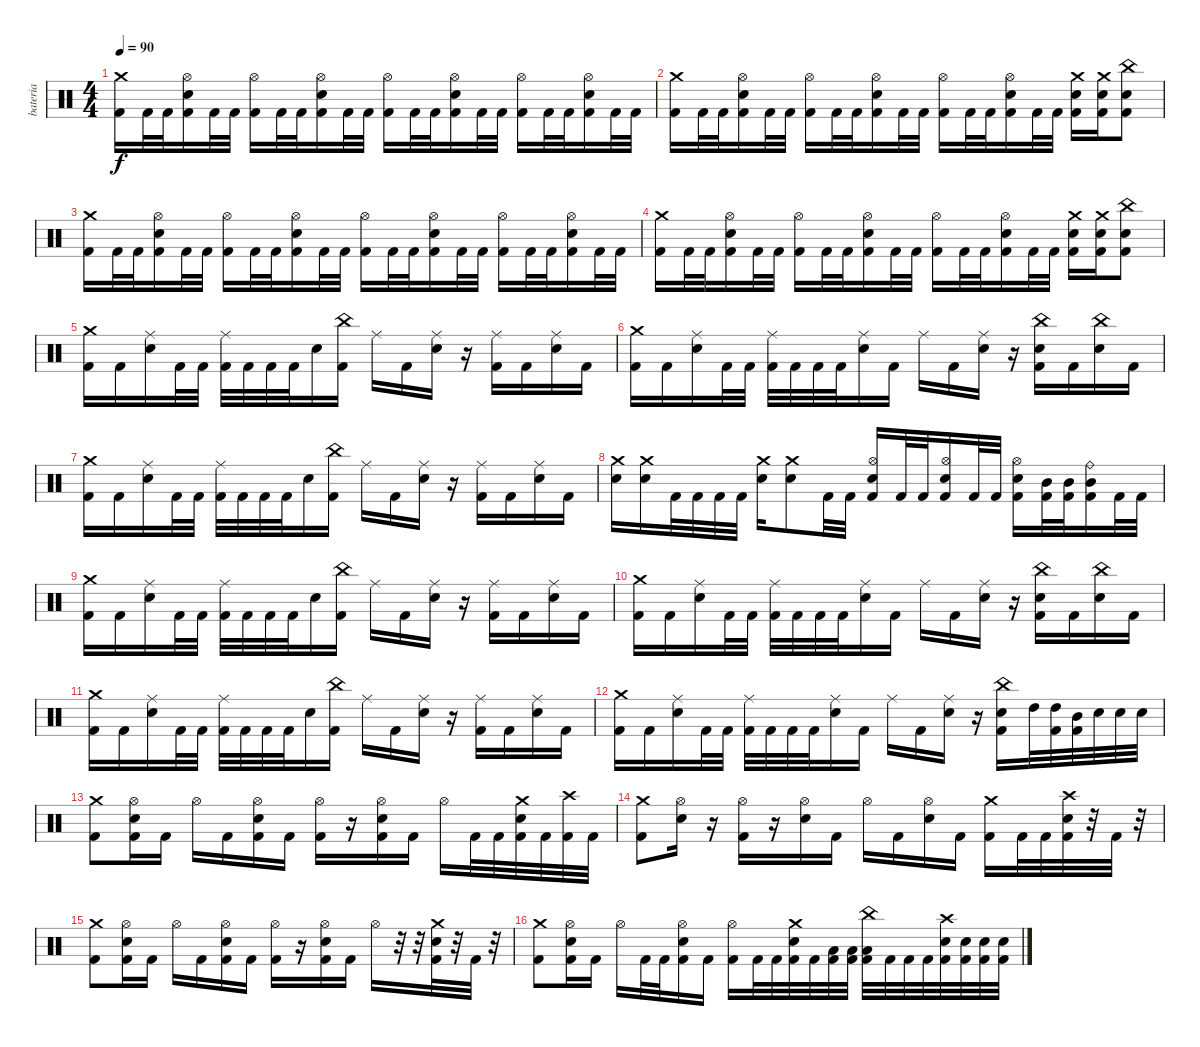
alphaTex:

\track ("bateria" "bateria") {instrument percussion}
\staff {score}
\articulation defaults
\ts (4 4)
\tempo 90
\clef neutral
\ks c
("Crash medium (hit)" "Kick (hit) 2").16{dy f} "Kick (hit) 2".32 "Kick (hit) 2".32 ("Hi-Hat (open)" "Snare (hit) 2" "Kick (hit) 2").16 "Kick (hit) 2".32 "Kick (hit) 2".32 ("Hi-Hat (open)" "Kick (hit) 2").16 "Kick (hit) 2".32 "Kick (hit) 2".32 ("Hi-Hat (open)" "Snare (hit) 2" "Kick (hit) 2").16 "Kick (hit) 2".32 "Kick (hit) 2".32 ("Hi-Hat (open)" "Kick (hit) 2").16 "Kick (hit) 2".32 "Kick (hit) 2".32 ("Hi-Hat (open)" "Snare (hit) 2" "Kick (hit) 2").16 "Kick (hit) 2".32 "Kick (hit) 2".32 ("Hi-Hat (open)" "Kick (hit) 2").16 "Kick (hit) 2".32 "Kick (hit) 2".32 ("Hi-Hat (open)" "Snare (hit) 2" "Kick (hit) 2").16 "Kick (hit) 2".32 "Kick (hit) 2".32 |
("Crash medium (hit)" "Kick (hit) 2").16 "Kick (hit) 2".32 "Kick (hit) 2".32 ("Hi-Hat (open)" "Snare (hit) 2" "Kick (hit) 2").16 "Kick (hit) 2".32 "Kick (hit) 2".32 ("Hi-Hat (open)" "Kick (hit) 2").16 "Kick (hit) 2".32 "Kick (hit) 2".32 ("Hi-Hat (open)" "Snare (hit) 2" "Kick (hit) 2").16 "Kick (hit) 2".32 "Kick (hit) 2".32 ("Hi-Hat (open)" "Kick (hit) 2").16 "Kick (hit) 2".32 "Kick (hit) 2".32 ("Hi-Hat (open)" "Snare (hit) 2" "Kick (hit) 2").16 "Kick (hit) 2".32 "Kick (hit) 2".32 ("Crash medium (hit)" "Snare (hit) 2" "Kick (hit) 2").16 ("Crash medium (hit)" "Snare (hit) 2" "Kick (hit) 2").16 ("China (hit)" "Snare (hit) 2" "Kick (hit) 2").8 |
("Crash medium (hit)" "Kick (hit) 2").16 "Kick (hit) 2".32 "Kick (hit) 2".32 ("Hi-Hat (open)" "Snare (hit) 2" "Kick (hit) 2").16 "Kick (hit) 2".32 "Kick (hit) 2".32 ("Hi-Hat (open)" "Kick (hit) 2").16 "Kick (hit) 2".32 "Kick (hit) 2".32 ("Hi-Hat (open)" "Snare (hit) 2" "Kick (hit) 2").16 "Kick (hit) 2".32 "Kick (hit) 2".32 ("Hi-Hat (open)" "Kick (hit) 2").16 "Kick (hit) 2".32 "Kick (hit) 2".32 ("Hi-Hat (open)" "Snare (hit) 2" "Kick (hit) 2").16 "Kick (hit) 2".32 "Kick (hit) 2".32 ("Hi-Hat (open)" "Kick (hit) 2").16 "Kick (hit) 2".32 "Kick (hit) 2".32 ("Hi-Hat (open)" "Snare (hit) 2" "Kick (hit) 2").16 "Kick (hit) 2".32 "Kick (hit) 2".32 |
("Crash medium (hit)" "Kick (hit) 2").16 "Kick (hit) 2".32 "Kick (hit) 2".32 ("Hi-Hat (open)" "Snare (hit) 2" "Kick (hit) 2").16 "Kick (hit) 2".32 "Kick (hit) 2".32 ("Hi-Hat (open)" "Kick (hit) 2").16 "Kick (hit) 2".32 "Kick (hit) 2".32 ("Hi-Hat (open)" "Snare (hit) 2" "Kick (hit) 2").16 "Kick (hit) 2".32 "Kick (hit) 2".32 ("Hi-Hat (open)" "Kick (hit) 2").16 "Kick (hit) 2".32 "Kick (hit) 2".32 ("Hi-Hat (open)" "Snare (hit) 2" "Kick (hit) 2").16 "Kick (hit) 2".32 "Kick (hit) 2".32 ("Crash medium (hit)" "Snare (hit) 2" "Kick (hit) 2").16 ("Crash medium (hit)" "Snare (hit) 2" "Kick (hit) 2").16 ("China (hit)" "Snare (hit) 2" "Kick (hit) 2").8 |
("Crash medium (hit)" "Kick (hit) 2").16 "Kick (hit) 2".16 ("Ride (middle)" "Snare (hit) 2").16 "Kick (hit) 2".32 "Kick (hit) 2".32 ("Ride (middle)" "Kick (hit) 2").32 "Kick (hit) 2".32 "Kick (hit) 2".32 "Kick (hit) 2".32 "Snare (hit) 2".16 ("China (hit)" "Kick (hit) 2").16 "Ride (middle)".16 "Kick (hit) 2".16 ("Ride (middle)" "Snare (hit) 2").16 r.16 ("Ride (middle)" "Kick (hit) 2").16 "Kick (hit) 2".16 ("Ride (middle)" "Snare (hit) 2").16 "Kick (hit) 2".16 |
("Crash medium (hit)" "Kick (hit) 2").16 "Kick (hit) 2".16 ("Ride (middle)" "Snare (hit) 2").16 "Kick (hit) 2".32 "Kick (hit) 2".32 ("Ride (middle)" "Kick (hit) 2").32 "Kick (hit) 2".32 "Kick (hit) 2".32 "Kick (hit) 2".32 ("Ride (middle)" "Snare (hit) 2").16 "Kick (hit) 2".16 "Ride (middle)".16 "Kick (hit) 2".16 ("Ride (middle)" "Snare (hit) 2").16 r.16 ("China (hit)" "Snare (hit) 2" "Kick (hit) 2").16 "Kick (hit) 2".16 ("China (hit)" "Snare (hit) 2").16 "Kick (hit) 2".16 |
("Crash medium (hit)" "Kick (hit) 2").16 "Kick (hit) 2".16 ("Ride (middle)" "Snare (hit) 2").16 "Kick (hit) 2".32 "Kick (hit) 2".32 ("Ride (middle)" "Kick (hit) 2").32 "Kick (hit) 2".32 "Kick (hit) 2".32 "Kick (hit) 2".32 "Snare (hit) 2".16 ("China (hit)" "Kick (hit) 2").16 "Ride (middle)".16 "Kick (hit) 2".16 ("Ride (middle)" "Snare (hit) 2").16 r.16 ("Ride (middle)" "Kick (hit) 2").16 "Kick (hit) 2".16 ("Ride (middle)" "Snare (hit) 2").16 "Kick (hit) 2".16 |
("Crash medium (hit)" "Snare (hit) 2").16 ("Crash medium (hit)" "Snare (hit) 2").16 "Kick (hit) 2".32 "Kick (hit) 2".32 "Kick (hit) 2".32 "Kick (hit) 2".32 ("Crash medium (hit)" "Snare (hit) 2").16 ("Crash medium (hit)" "Snare (hit) 2").8 "Kick (hit) 2".32 "Kick (hit) 2".32 ("Hi-Hat (open)" "Snare (hit) 2" "Kick (hit) 2").16 "Kick (hit) 2".32 "Kick (hit) 2".32 ("Hi-Hat (open)" "Snare (hit) 2" "Kick (hit) 2").16 "Kick (hit) 2".32 "Kick (hit) 2".32 ("Hi-Hat (open)" "Snare (hit) 2" "Kick (hit) 2").16 ("Mid Tom (hit)" "Kick (hit) 2").32 ("Mid Tom (hit)" "Kick (hit) 2").32 ("Ride (bell)" "Mid Tom (hit)" "Kick (hit) 2").16 "Kick (hit) 2".32 "Kick (hit) 2".32 |
("Crash medium (hit)" "Kick (hit) 2").16 "Kick (hit) 2".16 ("Ride (middle)" "Snare (hit) 2").16 "Kick (hit) 2".32 "Kick (hit) 2".32 ("Ride (middle)" "Kick (hit) 2").32 "Kick (hit) 2".32 "Kick (hit) 2".32 "Kick (hit) 2".32 "Snare (hit) 2".16 ("China (hit)" "Kick (hit) 2").16 "Ride (middle)".16 "Kick (hit) 2".16 ("Ride (middle)" "Snare (hit) 2").16 r.16 ("Ride (middle)" "Kick (hit) 2").16 "Kick (hit) 2".16 ("Ride (middle)" "Snare (hit) 2").16 "Kick (hit) 2".16 |
("Crash medium (hit)" "Kick (hit) 2").16 "Kick (hit) 2".16 ("Ride (middle)" "Snare (hit) 2").16 "Kick (hit) 2".32 "Kick (hit) 2".32 ("Ride (middle)" "Kick (hit) 2").32 "Kick (hit) 2".32 "Kick (hit) 2".32 "Kick (hit) 2".32 ("Ride (middle)" "Snare (hit) 2").16 "Kick (hit) 2".16 "Ride (middle)".16 "Kick (hit) 2".16 ("Ride (middle)" "Snare (hit) 2").16 r.16 ("China (hit)" "Snare (hit) 2" "Kick (hit) 2").16 "Kick (hit) 2".16 ("China (hit)" "Snare (hit) 2").16 "Kick (hit) 2".16 |
("Crash medium (hit)" "Kick (hit) 2").16 "Kick (hit) 2".16 ("Ride (middle)" "Snare (hit) 2").16 "Kick (hit) 2".32 "Kick (hit) 2".32 ("Ride (middle)" "Kick (hit) 2").32 "Kick (hit) 2".32 "Kick (hit) 2".32 "Kick (hit) 2".32 "Snare (hit) 2".16 ("China (hit)" "Kick (hit) 2").16 "Ride (middle)".16 "Kick (hit) 2".16 ("Ride (middle)" "Snare (hit) 2").16 r.16 ("Ride (middle)" "Kick (hit) 2").16 "Kick (hit) 2".16 ("Ride (middle)" "Snare (hit) 2").16 "Kick (hit) 2".16 |
("Crash medium (hit)" "Kick (hit) 2").16 "Kick (hit) 2".16 ("Ride (middle)" "Snare (hit) 2").16 "Kick (hit) 2".32 "Kick (hit) 2".32 ("Ride (middle)" "Kick (hit) 2").32 "Kick (hit) 2".32 "Kick (hit) 2".32 "Kick (hit) 2".32 ("Ride (middle)" "Snare (hit) 2").16 "Kick (hit) 2".16 "Ride (middle)".16 "Kick (hit) 2".16 ("Ride (middle)" "Snare (hit) 2").16 r.16 ("China (hit)" "Snare (hit) 2" "Kick (hit) 2").16 "High Tom (hit)".32 ("High Tom (hit)" "Kick (hit) 2").32 ("Mid Tom (hit)" "Kick (hit) 2").32 "Snare (hit) 2".32 "Snare (hit) 2".32 "Snare (hit) 2".32 |
("Crash medium (hit)" "Kick (hit) 2").8 ("Hi-Hat (open)" "Snare (hit) 2" "Kick (hit) 2").16 "Kick (hit) 2".16 "Hi-Hat (open)".16 "Kick (hit) 2".16 ("Hi-Hat (open)" "Snare (hit) 2" "Kick (hit) 2").16 "Kick (hit) 2".16 ("Hi-Hat (open)" "Kick (hit) 2").16 r.16 ("Hi-Hat (open)" "Snare (hit) 2" "Kick (hit) 2").16 "Kick (hit) 2".16 "Hi-Hat (open)".16 "Kick (hit) 2".32 "Kick (hit) 2".32 ("Crash medium (hit)" "Snare (hit) 2" "Kick (hit) 2").32 "Kick (hit) 2".32 ("Crash high (hit)" "Kick (hit) 2").32 "Kick (hit) 2".32 |
("Crash medium (hit)" "Kick (hit) 2").8 ("Hi-Hat (open)" "Snare (hit) 2").16 r.16 ("Hi-Hat (open)" "Kick (hit) 2").16 r.16 ("Hi-Hat (open)" "Snare (hit) 2").16 "Kick (hit) 2".16 "Hi-Hat (open)".16 "Kick (hit) 2".16 ("Hi-Hat (open)" "Snare (hit) 2").16 "Kick (hit) 2".16 ("Crash medium (hit)" "Kick (hit) 2").16 "Kick (hit) 2".32 "Kick (hit) 2".32 ("Crash high (hit)" "Snare (hit) 2" "Kick (hit) 2").32 r.32 "Kick (hit) 2".32 r.32 |
("Crash medium (hit)" "Kick (hit) 2").8 ("Hi-Hat (open)" "Snare (hit) 2" "Kick (hit) 2").16 "Kick (hit) 2".16 "Hi-Hat (open)".16 "Kick (hit) 2".16 ("Hi-Hat (open)" "Snare (hit) 2" "Kick (hit) 2").16 "Kick (hit) 2".16 ("Hi-Hat (open)" "Kick (hit) 2").16 r.16 ("Hi-Hat (open)" "Snare (hit) 2" "Kick (hit) 2").16 "Kick (hit) 2".16 "Hi-Hat (open)".16 r.32 r.32 ("Crash medium (hit)" "Snare (hit) 2" "Kick (hit) 2").32 r.32 "Kick (hit) 2".32 r.32 |
("Crash medium (hit)" "Kick (hit) 2").8 ("Hi-Hat (open)" "Snare (hit) 2" "Kick (hit) 2").16 "Kick (hit) 2".16 "Hi-Hat (open)".16 "Kick (hit) 2".32 "Kick (hit) 2".32 ("Hi-Hat (open)" "Snare (hit) 2" "Kick (hit) 2").16 "Kick (hit) 2".16 ("Hi-Hat (open)" "Kick (hit) 2").16 "Kick (hit) 2".32 "Kick (hit) 2".32 ("Crash medium (hit)" "Snare (hit) 2" "Kick (hit) 2").32 "Kick (hit) 2".32 ("Low Tom (hit)" "Kick (hit) 2").32 ("Low Tom (hit)" "Kick (hit) 2").32 ("China (hit)" "Low Tom (hit)" "Kick (hit) 2").32 "Kick (hit) 2".32 "Kick (hit) 2".32 "Kick (hit) 2".32 ("Crash high (hit)" "Snare (hit) 2" "Kick (hit) 2").32 ("Snare (hit) 2" "Kick (hit) 2").32 ("Snare (hit) 2" "Kick (hit) 2").32 ("Snare (hit) 2" "Kick (hit) 2").32
